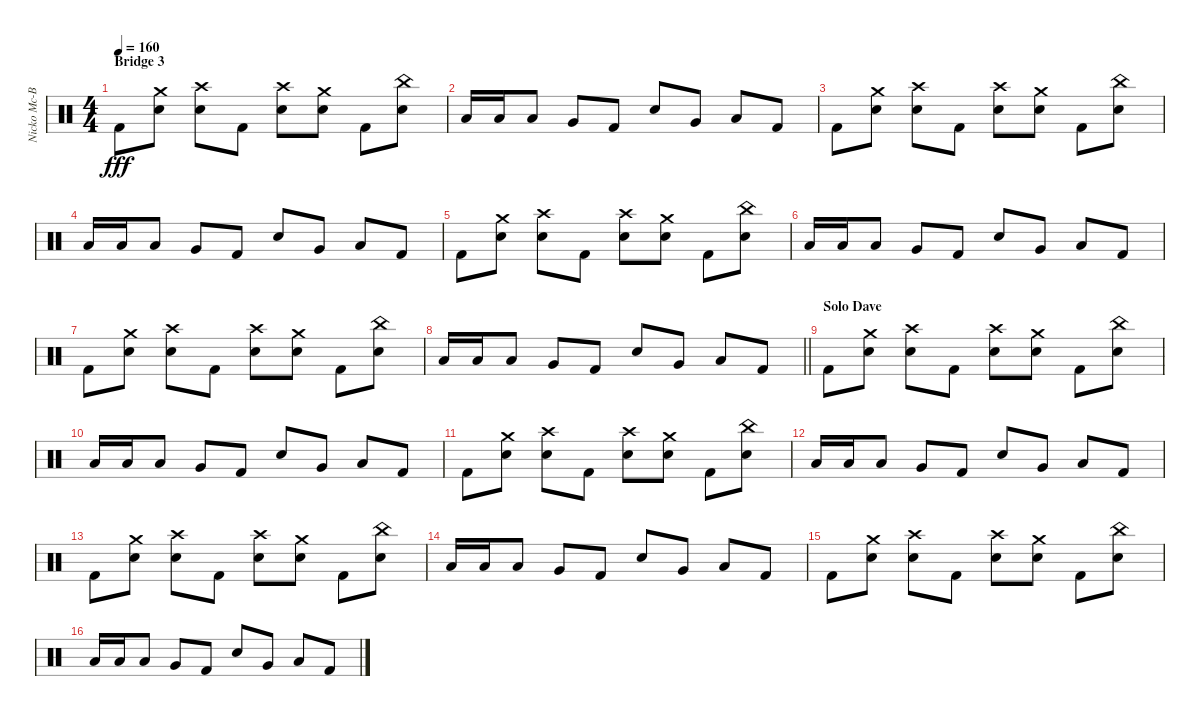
\track ("Nicko Mc-Brain" "Nicko Mc-B") {instrument percussion}
\staff {score}
\articulation defaults
\ts (4 4)
\section ("" "Bridge 3")
\tempo 160
\clef neutral
\ks c "Kick (hit) 2".8{dy fff}
("Crash medium (hit)" "Snare (hit) 2").8 ("Crash high (hit)" "Snare (hit) 2").8 "Kick (hit) 2".8 ("Crash high (hit)" "Snare (hit) 2").8 ("Crash medium (hit)" "Snare (hit) 2").8 "Kick (hit) 2".8 ("China (hit)" "Snare (hit) 2").8 |
"Low Floor Tom (hit)".16 "Low Floor Tom (hit)".16 "Low Floor Tom (hit)".8 "Very Low Tom (hit)".8 "Kick (hit) 2".8 "Snare (hit) 2".8 "Very Low Tom (hit)".8 "Low Floor Tom (hit)".8 "Kick (hit) 2".8 |
"Kick (hit) 2".8 ("Crash medium (hit)" "Snare (hit) 2").8 ("Crash high (hit)" "Snare (hit) 2").8 "Kick (hit) 2".8 ("Crash high (hit)" "Snare (hit) 2").8 ("Crash medium (hit)" "Snare (hit) 2").8 "Kick (hit) 2".8 ("China (hit)" "Snare (hit) 2").8 |
"Low Floor Tom (hit)".16 "Low Floor Tom (hit)".16 "Low Floor Tom (hit)".8 "Very Low Tom (hit)".8 "Kick (hit) 2".8 "Snare (hit) 2".8 "Very Low Tom (hit)".8 "Low Floor Tom (hit)".8 "Kick (hit) 2".8 |
"Kick (hit) 2".8 ("Crash medium (hit)" "Snare (hit) 2").8 ("Crash high (hit)" "Snare (hit) 2").8 "Kick (hit) 2".8 ("Crash high (hit)" "Snare (hit) 2").8 ("Crash medium (hit)" "Snare (hit) 2").8 "Kick (hit) 2".8 ("China (hit)" "Snare (hit) 2").8 |
"Low Floor Tom (hit)".16 "Low Floor Tom (hit)".16 "Low Floor Tom (hit)".8 "Very Low Tom (hit)".8 "Kick (hit) 2".8 "Snare (hit) 2".8 "Very Low Tom (hit)".8 "Low Floor Tom (hit)".8 "Kick (hit) 2".8 |
"Kick (hit) 2".8 ("Crash medium (hit)" "Snare (hit) 2").8 ("Crash high (hit)" "Snare (hit) 2").8 "Kick (hit) 2".8 ("Crash high (hit)" "Snare (hit) 2").8 ("Crash medium (hit)" "Snare (hit) 2").8 "Kick (hit) 2".8 ("China (hit)" "Snare (hit) 2").8 |
\barLineRight lightlight "Low Floor Tom (hit)".16 "Low Floor Tom (hit)".16 "Low Floor Tom (hit)".8 "Very Low Tom (hit)".8 "Kick (hit) 2".8 "Snare (hit) 2".8 "Very Low Tom (hit)".8 "Low Floor Tom (hit)".8 "Kick (hit) 2".8
|
\section ("" "Solo Dave")
"Kick (hit) 2".8 ("Crash medium (hit)" "Snare (hit) 2").8 ("Crash high (hit)" "Snare (hit) 2").8 "Kick (hit) 2".8 ("Crash high (hit)" "Snare (hit) 2").8 ("Crash medium (hit)" "Snare (hit) 2").8 "Kick (hit) 2".8 ("China (hit)" "Snare (hit) 2").8 |
"Low Floor Tom (hit)".16 "Low Floor Tom (hit)".16 "Low Floor Tom (hit)".8 "Very Low Tom (hit)".8 "Kick (hit) 2".8 "Snare (hit) 2".8 "Very Low Tom (hit)".8 "Low Floor Tom (hit)".8 "Kick (hit) 2".8 |
"Kick (hit) 2".8 ("Crash medium (hit)" "Snare (hit) 2").8 ("Crash high (hit)" "Snare (hit) 2").8 "Kick (hit) 2".8 ("Crash high (hit)" "Snare (hit) 2").8 ("Crash medium (hit)" "Snare (hit) 2").8 "Kick (hit) 2".8 ("China (hit)" "Snare (hit) 2").8 |
"Low Floor Tom (hit)".16 "Low Floor Tom (hit)".16 "Low Floor Tom (hit)".8 "Very Low Tom (hit)".8 "Kick (hit) 2".8 "Snare (hit) 2".8 "Very Low Tom (hit)".8 "Low Floor Tom (hit)".8 "Kick (hit) 2".8 |
"Kick (hit) 2".8 ("Crash medium (hit)" "Snare (hit) 2").8 ("Crash high (hit)" "Snare (hit) 2").8 "Kick (hit) 2".8 ("Crash high (hit)" "Snare (hit) 2").8 ("Crash medium (hit)" "Snare (hit) 2").8 "Kick (hit) 2".8 ("China (hit)" "Snare (hit) 2").8 |
"Low Floor Tom (hit)".16 "Low Floor Tom (hit)".16 "Low Floor Tom (hit)".8 "Very Low Tom (hit)".8 "Kick (hit) 2".8 "Snare (hit) 2".8 "Very Low Tom (hit)".8 "Low Floor Tom (hit)".8 "Kick (hit) 2".8 |
"Kick (hit) 2".8 ("Crash medium (hit)" "Snare (hit) 2").8 ("Crash high (hit)" "Snare (hit) 2").8 "Kick (hit) 2".8 ("Crash high (hit)" "Snare (hit) 2").8 ("Crash medium (hit)" "Snare (hit) 2").8 "Kick (hit) 2".8 ("China (hit)" "Snare (hit) 2").8 |
"Low Floor Tom (hit)".16 "Low Floor Tom (hit)".16 "Low Floor Tom (hit)".8 "Very Low Tom (hit)".8 "Kick (hit) 2".8 "Snare (hit) 2".8 "Very Low Tom (hit)".8 "Low Floor Tom (hit)".8 "Kick (hit) 2".8
